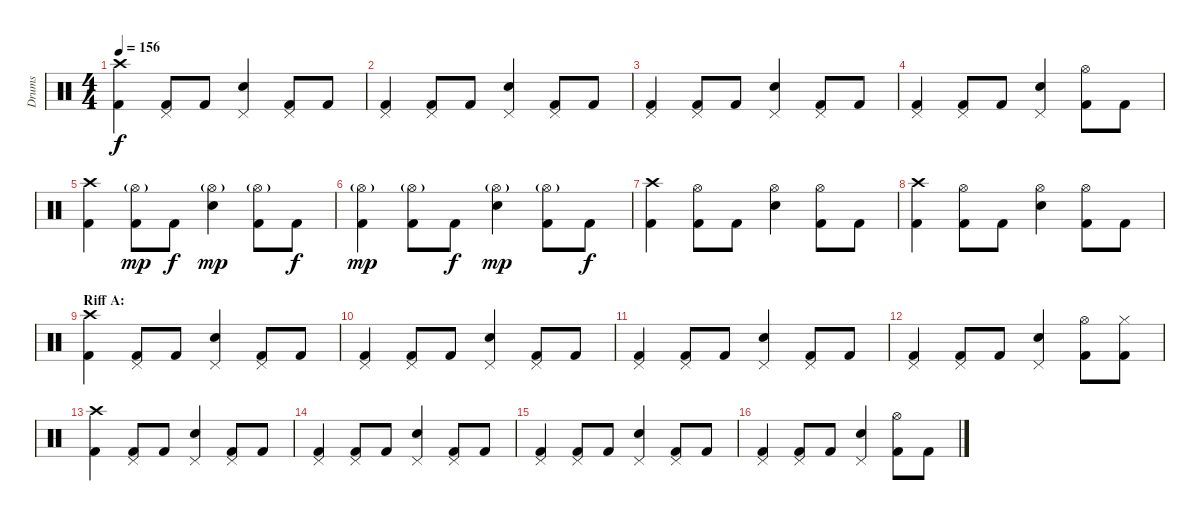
\track ("Drums" "Drums") {instrument percussion}
\staff {score}
\articulation defaults
\ts (4 4)
\tempo 156
\clef neutral
\ks c
("Crash high (hit)" "Kick (hit) 2").4{dy f} ("Pedal Hi-Hat (hit)" "Kick (hit) 2").8 "Kick (hit) 2".8 ("Pedal Hi-Hat (hit)" "Electric Snare (hit)").4 ("Pedal Hi-Hat (hit)" "Kick (hit) 2").8 "Kick (hit) 2".8 |
("Pedal Hi-Hat (hit)" "Kick (hit) 2").4 ("Pedal Hi-Hat (hit)" "Kick (hit) 2").8 "Kick (hit) 2".8 ("Pedal Hi-Hat (hit)" "Electric Snare (hit)").4 ("Pedal Hi-Hat (hit)" "Kick (hit) 2").8 "Kick (hit) 2".8 |
("Pedal Hi-Hat (hit)" "Kick (hit) 2").4 ("Pedal Hi-Hat (hit)" "Kick (hit) 2").8 "Kick (hit) 2".8 ("Pedal Hi-Hat (hit)" "Electric Snare (hit)").4 ("Pedal Hi-Hat (hit)" "Kick (hit) 2").8 "Kick (hit) 2".8 |
("Pedal Hi-Hat (hit)" "Kick (hit) 2").4 ("Pedal Hi-Hat (hit)" "Kick (hit) 2").8 "Kick (hit) 2".8 ("Pedal Hi-Hat (hit)" "Electric Snare (hit)").4 ("Hi-Hat (open)" "Kick (hit) 2").8 "Kick (hit) 2".8 |
("Crash high (hit)" "Kick (hit) 2").4 ("Hi-Hat (open)"{g} "Kick (hit) 2").8{dy mp} "Kick (hit) 2".8{dy f} ("Hi-Hat (open)"{g} "Electric Snare (hit)").4{dy mp} ("Hi-Hat (open)"{g} "Kick (hit) 2").8 "Kick (hit) 2".8{dy f} |
("Hi-Hat (open)"{g} "Kick (hit) 2").4{dy mp} ("Hi-Hat (open)"{g} "Kick (hit) 2").8 "Kick (hit) 2".8{dy f} ("Hi-Hat (open)"{g} "Electric Snare (hit)").4{dy mp} ("Hi-Hat (open)"{g} "Kick (hit) 2").8 "Kick (hit) 2".8{dy f} |
("Crash high (hit)" "Kick (hit) 2").4 ("Hi-Hat (open)" "Kick (hit) 2").8 "Kick (hit) 2".8 ("Hi-Hat (open)" "Electric Snare (hit)").4 ("Hi-Hat (open)" "Kick (hit) 2").8 "Kick (hit) 2".8 |
("Crash high (hit)" "Kick (hit) 2").4 ("Hi-Hat (open)" "Kick (hit) 2").8 "Kick (hit) 2".8 ("Hi-Hat (open)" "Electric Snare (hit)").4 ("Hi-Hat (open)" "Kick (hit) 2").8 "Kick (hit) 2".8 |
\section ("" "Riff A:")
("Crash high (hit)" "Kick (hit) 2").4 ("Pedal Hi-Hat (hit)" "Kick (hit) 2").8 "Kick (hit) 2".8 ("Pedal Hi-Hat (hit)" "Electric Snare (hit)").4 ("Pedal Hi-Hat (hit)" "Kick (hit) 2").8 "Kick (hit) 2".8 |
("Pedal Hi-Hat (hit)" "Kick (hit) 2").4 ("Pedal Hi-Hat (hit)" "Kick (hit) 2").8 "Kick (hit) 2".8 ("Pedal Hi-Hat (hit)" "Electric Snare (hit)").4 ("Pedal Hi-Hat (hit)" "Kick (hit) 2").8 "Kick (hit) 2".8 |
("Pedal Hi-Hat (hit)" "Kick (hit) 2").4 ("Pedal Hi-Hat (hit)" "Kick (hit) 2").8 "Kick (hit) 2".8 ("Pedal Hi-Hat (hit)" "Electric Snare (hit)").4 ("Pedal Hi-Hat (hit)" "Kick (hit) 2").8 "Kick (hit) 2".8 |
("Pedal Hi-Hat (hit)" "Kick (hit) 2").4 ("Pedal Hi-Hat (hit)" "Kick (hit) 2").8 "Kick (hit) 2".8 ("Pedal Hi-Hat (hit)" "Electric Snare (hit)").4 ("Hi-Hat (open)" "Kick (hit) 2").8 ("Hi-Hat (closed)" "Kick (hit) 2").8 |
("Crash high (hit)" "Kick (hit) 2").4 ("Pedal Hi-Hat (hit)" "Kick (hit) 2").8 "Kick (hit) 2".8 ("Pedal Hi-Hat (hit)" "Electric Snare (hit)").4 ("Pedal Hi-Hat (hit)" "Kick (hit) 2").8 "Kick (hit) 2".8 |
("Pedal Hi-Hat (hit)" "Kick (hit) 2").4 ("Pedal Hi-Hat (hit)" "Kick (hit) 2").8 "Kick (hit) 2".8 ("Pedal Hi-Hat (hit)" "Electric Snare (hit)").4 ("Pedal Hi-Hat (hit)" "Kick (hit) 2").8 "Kick (hit) 2".8 |
("Pedal Hi-Hat (hit)" "Kick (hit) 2").4 ("Pedal Hi-Hat (hit)" "Kick (hit) 2").8 "Kick (hit) 2".8 ("Pedal Hi-Hat (hit)" "Electric Snare (hit)").4 ("Pedal Hi-Hat (hit)" "Kick (hit) 2").8 "Kick (hit) 2".8 |
("Pedal Hi-Hat (hit)" "Kick (hit) 2").4 ("Pedal Hi-Hat (hit)" "Kick (hit) 2").8 "Kick (hit) 2".8 ("Pedal Hi-Hat (hit)" "Electric Snare (hit)").4 ("Hi-Hat (open)" "Kick (hit) 2").8 "Kick (hit) 2".8
